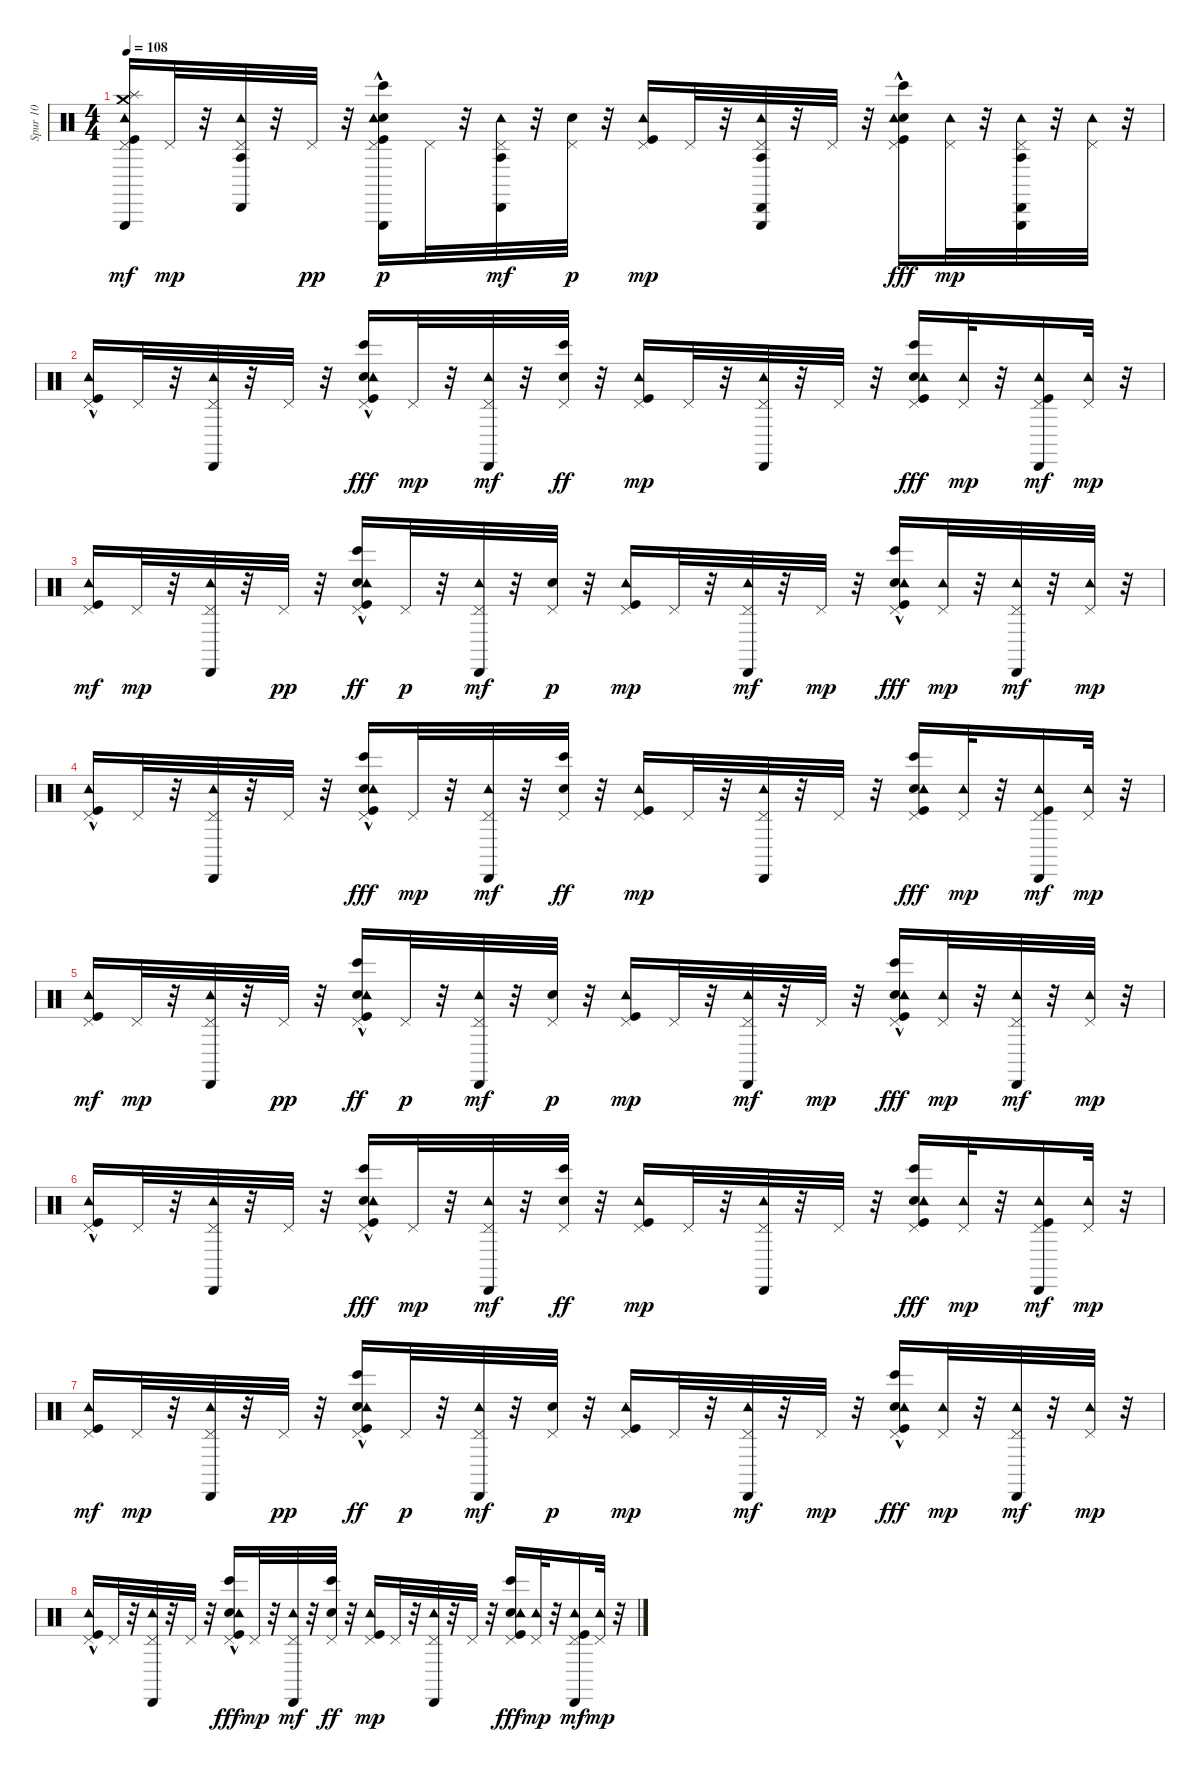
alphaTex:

\track ("Spur 10" "Spur 10") {instrument percussion}
\staff {score}
\articulation defaults
\ts (4 4)
\tempo 108
\clef neutral
\ks c
("Kick (hit)" "Tambourine (hit)" "Pedal Hi-Hat (hit)" "Triangle (hit)" "Splash (hit)" "Crash medium (hit)").16{dy mf} "Pedal Hi-Hat (hit)".32{dy mp} r.32 ("Tambourine (hit)" "Pedal Hi-Hat (hit)" "Cabasa (hit)" "Agogo tow (hit)").32 r.32 "Pedal Hi-Hat (hit)".32{dy pp} r.32 ("Kick (hit)"{hac} "Snare (hit) 2"{hac} "Tambourine (hit)" "Pedal Hi-Hat (hit)" "Bongo High (hit)" "Triangle (hit)").16{dy p} "Pedal Hi-Hat (hit)".32 r.32 ("Tambourine (hit)" "Pedal Hi-Hat (hit)" "Cabasa (hit)" "Agogo tow (hit)").32{dy mf} r.32 ("Snare (hit) 2" "Pedal Hi-Hat (hit)").32{dy p} r.32 ("Kick (hit)" "Tambourine (hit)" "Pedal Hi-Hat (hit)").16{dy mp} "Pedal Hi-Hat (hit)".32 r.32 ("Tambourine (hit)" "Pedal Hi-Hat (hit)" "Cabasa (hit)" "Agogo tow (hit)" "Triangle (hit)").32 r.32 "Pedal Hi-Hat (hit)".32 r.32 ("Snare (hit) 2" "Kick (hit)"{hac} "Tambourine (hit)" "Pedal Hi-Hat (hit)" "Bongo High (hit)").16{dy fff} ("Tambourine (hit)" "Pedal Hi-Hat (hit)").32{dy mp} r.32 ("Tambourine (hit)" "Pedal Hi-Hat (hit)" "Cabasa (hit)" "Agogo tow (hit)" "Triangle (hit)").32 r.32 ("Tambourine (hit)" "Pedal Hi-Hat (hit)").32 r.32 |
("Kick (hit)"{hac} "Tambourine (hit)" "Pedal Hi-Hat (hit)").16 "Pedal Hi-Hat (hit)".32 r.32 ("Tambourine (hit)" "Pedal Hi-Hat (hit)" "Cabasa (hit)").32 r.32 "Pedal Hi-Hat (hit)".32 r.32 ("Kick (hit)"{hac} "Snare (hit) 2" "Tambourine (hit)" "Pedal Hi-Hat (hit)" "Bongo High (hit)"{hac}).16{dy fff} "Pedal Hi-Hat (hit)".32{dy mp} r.32 ("Tambourine (hit)" "Pedal Hi-Hat (hit)" "Cabasa (hit)").32{dy mf} r.32 ("Snare (hit) 2" "Pedal Hi-Hat (hit)" "Bongo High (hit)").32{dy ff} r.32 ("Kick (hit)" "Tambourine (hit)" "Pedal Hi-Hat (hit)").16{dy mp} "Pedal Hi-Hat (hit)".32 r.32 ("Tambourine (hit)" "Pedal Hi-Hat (hit)" "Cabasa (hit)").32 r.32 "Pedal Hi-Hat (hit)".32 r.32 ("Snare (hit) 2" "Kick (hit)" "Tambourine (hit)" "Pedal Hi-Hat (hit)" "Bongo High (hit)").16{dy fff} ("Tambourine (hit)" "Pedal Hi-Hat (hit)").32{dy mp} r.32 ("Kick (hit)" "Tambourine (hit)" "Pedal Hi-Hat (hit)" "Cabasa (hit)").16{dy mf} ("Tambourine (hit)" "Pedal Hi-Hat (hit)").32{dy mp} r.32 |
("Kick (hit)" "Tambourine (hit)" "Pedal Hi-Hat (hit)").16{dy mf} "Pedal Hi-Hat (hit)".32{dy mp} r.32 ("Tambourine (hit)" "Pedal Hi-Hat (hit)" "Cabasa (hit)").32 r.32 "Pedal Hi-Hat (hit)".32{dy pp} r.32 ("Kick (hit)"{hac} "Snare (hit) 2"{hac} "Tambourine (hit)" "Pedal Hi-Hat (hit)" "Bongo High (hit)").16{dy ff} "Pedal Hi-Hat (hit)".32{dy p} r.32 ("Tambourine (hit)" "Pedal Hi-Hat (hit)" "Cabasa (hit)").32{dy mf} r.32 ("Snare (hit) 2" "Pedal Hi-Hat (hit)").32{dy p} r.32 ("Kick (hit)" "Tambourine (hit)" "Pedal Hi-Hat (hit)").16{dy mp} "Pedal Hi-Hat (hit)".32 r.32 ("Tambourine (hit)" "Pedal Hi-Hat (hit)" "Cabasa (hit)").32{dy mf} r.32 "Pedal Hi-Hat (hit)".32{dy mp} r.32 ("Snare (hit) 2" "Kick (hit)"{hac} "Tambourine (hit)" "Pedal Hi-Hat (hit)" "Bongo High (hit)").16{dy fff} ("Tambourine (hit)" "Pedal Hi-Hat (hit)").32{dy mp} r.32 ("Tambourine (hit)" "Pedal Hi-Hat (hit)" "Cabasa (hit)").32{dy mf} r.32 ("Tambourine (hit)" "Pedal Hi-Hat (hit)").32{dy mp} r.32 |
("Kick (hit)"{hac} "Tambourine (hit)" "Pedal Hi-Hat (hit)").16 "Pedal Hi-Hat (hit)".32 r.32 ("Tambourine (hit)" "Pedal Hi-Hat (hit)" "Cabasa (hit)").32 r.32 "Pedal Hi-Hat (hit)".32 r.32 ("Kick (hit)"{hac} "Snare (hit) 2" "Tambourine (hit)" "Pedal Hi-Hat (hit)" "Bongo High (hit)"{hac}).16{dy fff} "Pedal Hi-Hat (hit)".32{dy mp} r.32 ("Tambourine (hit)" "Pedal Hi-Hat (hit)" "Cabasa (hit)").32{dy mf} r.32 ("Snare (hit) 2" "Pedal Hi-Hat (hit)" "Bongo High (hit)").32{dy ff} r.32 ("Kick (hit)" "Tambourine (hit)" "Pedal Hi-Hat (hit)").16{dy mp} "Pedal Hi-Hat (hit)".32 r.32 ("Tambourine (hit)" "Pedal Hi-Hat (hit)" "Cabasa (hit)").32 r.32 "Pedal Hi-Hat (hit)".32 r.32 ("Snare (hit) 2" "Kick (hit)" "Tambourine (hit)" "Pedal Hi-Hat (hit)" "Bongo High (hit)").16{dy fff} ("Tambourine (hit)" "Pedal Hi-Hat (hit)").32{dy mp} r.32 ("Kick (hit)" "Tambourine (hit)" "Pedal Hi-Hat (hit)" "Cabasa (hit)").16{dy mf} ("Tambourine (hit)" "Pedal Hi-Hat (hit)").32{dy mp} r.32 |
("Kick (hit)" "Tambourine (hit)" "Pedal Hi-Hat (hit)").16{dy mf} "Pedal Hi-Hat (hit)".32{dy mp} r.32 ("Tambourine (hit)" "Pedal Hi-Hat (hit)" "Cabasa (hit)").32 r.32 "Pedal Hi-Hat (hit)".32{dy pp} r.32 ("Kick (hit)"{hac} "Snare (hit) 2"{hac} "Tambourine (hit)" "Pedal Hi-Hat (hit)" "Bongo High (hit)").16{dy ff} "Pedal Hi-Hat (hit)".32{dy p} r.32 ("Tambourine (hit)" "Pedal Hi-Hat (hit)" "Cabasa (hit)").32{dy mf} r.32 ("Snare (hit) 2" "Pedal Hi-Hat (hit)").32{dy p} r.32 ("Kick (hit)" "Tambourine (hit)" "Pedal Hi-Hat (hit)").16{dy mp} "Pedal Hi-Hat (hit)".32 r.32 ("Tambourine (hit)" "Pedal Hi-Hat (hit)" "Cabasa (hit)").32{dy mf} r.32 "Pedal Hi-Hat (hit)".32{dy mp} r.32 ("Snare (hit) 2" "Kick (hit)"{hac} "Tambourine (hit)" "Pedal Hi-Hat (hit)" "Bongo High (hit)").16{dy fff} ("Tambourine (hit)" "Pedal Hi-Hat (hit)").32{dy mp} r.32 ("Tambourine (hit)" "Pedal Hi-Hat (hit)" "Cabasa (hit)").32{dy mf} r.32 ("Tambourine (hit)" "Pedal Hi-Hat (hit)").32{dy mp} r.32 |
("Kick (hit)"{hac} "Tambourine (hit)" "Pedal Hi-Hat (hit)").16 "Pedal Hi-Hat (hit)".32 r.32 ("Tambourine (hit)" "Pedal Hi-Hat (hit)" "Cabasa (hit)").32 r.32 "Pedal Hi-Hat (hit)".32 r.32 ("Kick (hit)"{hac} "Snare (hit) 2" "Tambourine (hit)" "Pedal Hi-Hat (hit)" "Bongo High (hit)"{hac}).16{dy fff} "Pedal Hi-Hat (hit)".32{dy mp} r.32 ("Tambourine (hit)" "Pedal Hi-Hat (hit)" "Cabasa (hit)").32{dy mf} r.32 ("Snare (hit) 2" "Pedal Hi-Hat (hit)" "Bongo High (hit)").32{dy ff} r.32 ("Kick (hit)" "Tambourine (hit)" "Pedal Hi-Hat (hit)").16{dy mp} "Pedal Hi-Hat (hit)".32 r.32 ("Tambourine (hit)" "Pedal Hi-Hat (hit)" "Cabasa (hit)").32 r.32 "Pedal Hi-Hat (hit)".32 r.32 ("Snare (hit) 2" "Kick (hit)" "Tambourine (hit)" "Pedal Hi-Hat (hit)" "Bongo High (hit)").16{dy fff} ("Tambourine (hit)" "Pedal Hi-Hat (hit)").32{dy mp} r.32 ("Kick (hit)" "Tambourine (hit)" "Pedal Hi-Hat (hit)" "Cabasa (hit)").16{dy mf} ("Tambourine (hit)" "Pedal Hi-Hat (hit)").32{dy mp} r.32 |
("Kick (hit)" "Tambourine (hit)" "Pedal Hi-Hat (hit)").16{dy mf} "Pedal Hi-Hat (hit)".32{dy mp} r.32 ("Tambourine (hit)" "Pedal Hi-Hat (hit)" "Cabasa (hit)").32 r.32 "Pedal Hi-Hat (hit)".32{dy pp} r.32 ("Kick (hit)"{hac} "Snare (hit) 2"{hac} "Tambourine (hit)" "Pedal Hi-Hat (hit)" "Bongo High (hit)").16{dy ff} "Pedal Hi-Hat (hit)".32{dy p} r.32 ("Tambourine (hit)" "Pedal Hi-Hat (hit)" "Cabasa (hit)").32{dy mf} r.32 ("Snare (hit) 2" "Pedal Hi-Hat (hit)").32{dy p} r.32 ("Kick (hit)" "Tambourine (hit)" "Pedal Hi-Hat (hit)").16{dy mp} "Pedal Hi-Hat (hit)".32 r.32 ("Tambourine (hit)" "Pedal Hi-Hat (hit)" "Cabasa (hit)").32{dy mf} r.32 "Pedal Hi-Hat (hit)".32{dy mp} r.32 ("Snare (hit) 2" "Kick (hit)"{hac} "Tambourine (hit)" "Pedal Hi-Hat (hit)" "Bongo High (hit)").16{dy fff} ("Tambourine (hit)" "Pedal Hi-Hat (hit)").32{dy mp} r.32 ("Tambourine (hit)" "Pedal Hi-Hat (hit)" "Cabasa (hit)").32{dy mf} r.32 ("Tambourine (hit)" "Pedal Hi-Hat (hit)").32{dy mp} r.32 |
("Kick (hit)"{hac} "Tambourine (hit)" "Pedal Hi-Hat (hit)").16 "Pedal Hi-Hat (hit)".32 r.32 ("Tambourine (hit)" "Pedal Hi-Hat (hit)" "Cabasa (hit)").32 r.32 "Pedal Hi-Hat (hit)".32 r.32 ("Kick (hit)"{hac} "Snare (hit) 2" "Tambourine (hit)" "Pedal Hi-Hat (hit)" "Bongo High (hit)"{hac}).16{dy fff} "Pedal Hi-Hat (hit)".32{dy mp} r.32 ("Tambourine (hit)" "Pedal Hi-Hat (hit)" "Cabasa (hit)").32{dy mf} r.32 ("Snare (hit) 2" "Pedal Hi-Hat (hit)" "Bongo High (hit)").32{dy ff} r.32 ("Kick (hit)" "Tambourine (hit)" "Pedal Hi-Hat (hit)").16{dy mp} "Pedal Hi-Hat (hit)".32 r.32 ("Tambourine (hit)" "Pedal Hi-Hat (hit)" "Cabasa (hit)").32 r.32 "Pedal Hi-Hat (hit)".32 r.32 ("Snare (hit) 2" "Kick (hit)" "Tambourine (hit)" "Pedal Hi-Hat (hit)" "Bongo High (hit)").16{dy fff} ("Tambourine (hit)" "Pedal Hi-Hat (hit)").32{dy mp} r.32 ("Kick (hit)" "Tambourine (hit)" "Pedal Hi-Hat (hit)" "Cabasa (hit)").16{dy mf} ("Tambourine (hit)" "Pedal Hi-Hat (hit)").32{dy mp} r.32
